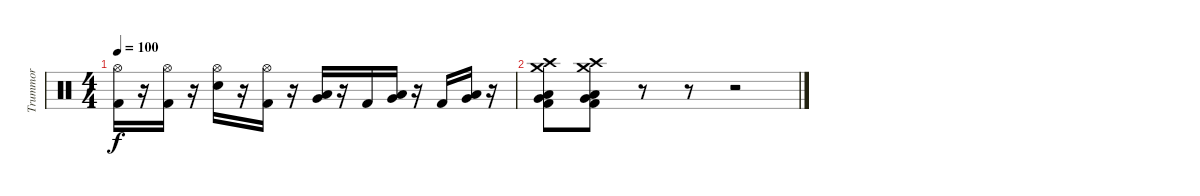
\track ("Trummor" "Trummor") {instrument percussion}
\staff {score}
\articulation defaults
\ts (4 4)
\tempo 100
\clef neutral
\ks c
("Hi-Hat (open)" "Kick (hit) 2").16{dy f} r.16 ("Hi-Hat (open)" "Kick (hit) 2").16 r.16 ("Hi-Hat (open)" "Snare (hit) 2").16 r.16 ("Hi-Hat (open)" "Kick (hit) 2").16 r.16 ("Very Low Tom (hit)" "Low Floor Tom (hit)").16 r.16 "Kick (hit) 2".16 ("Very Low Tom (hit)" "Low Floor Tom (hit)").16 r.16 "Kick (hit) 2".16 ("Very Low Tom (hit)" "Low Floor Tom (hit)").16 r.16 |
("Crash medium (hit)" "Crash high (hit)" "Very Low Tom (hit)" "Low Floor Tom (hit)" "Kick (hit) 2").8 ("Crash medium (hit)" "Crash high (hit)" "Very Low Tom (hit)" "Low Floor Tom (hit)" "Kick (hit) 2").8 r.8 r.8 r.2
